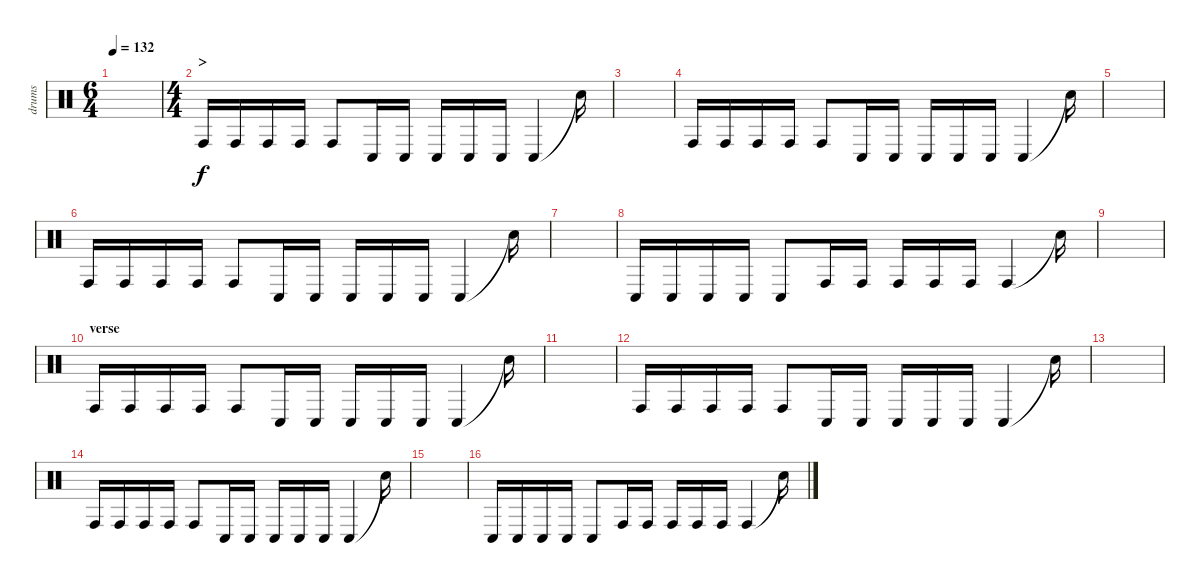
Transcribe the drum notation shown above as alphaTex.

\track ("drums" "drums") {instrument percussion}
\staff {score}
\articulation defaults
\ts (6 4)
\tempo 132
\clef neutral
\ks c
|
\ts (4 4)
\section ("" ">")
"Conga high (hit)".16 "Conga high (hit)".16 "Conga high (hit)".16 "Conga high (hit)".16 "Conga high (hit)".8 "Conga low (hit)".16 "Conga low (hit)".16 "Conga low (hit)".16 "Conga low (hit)".16 "Conga low (hit)".16 "Conga low (hit)".4 "Snare (hit)"{t}.16 |
|
"Conga high (hit)".16 "Conga high (hit)".16 "Conga high (hit)".16 "Conga high (hit)".16 "Conga high (hit)".8 "Conga low (hit)".16 "Conga low (hit)".16 "Conga low (hit)".16 "Conga low (hit)".16 "Conga low (hit)".16 "Conga low (hit)".4 "Snare (hit)"{t}.16 |
|
"Conga high (hit)".16 "Conga high (hit)".16 "Conga high (hit)".16 "Conga high (hit)".16 "Conga high (hit)".8 "Conga low (hit)".16 "Conga low (hit)".16 "Conga low (hit)".16 "Conga low (hit)".16 "Conga low (hit)".16 "Conga low (hit)".4 "Snare (hit)"{t}.16 |
|
"Conga low (hit)".16 "Conga low (hit)".16 "Conga low (hit)".16 "Conga low (hit)".16 "Conga low (hit)".8 "Conga high (hit)".16 "Conga high (hit)".16 "Conga high (hit)".16 "Conga high (hit)".16 "Conga high (hit)".16 "Conga high (hit)".4 "Snare (hit)"{t}.16 |
|
\section ("" "verse")
"Conga high (hit)".16 "Conga high (hit)".16 "Conga high (hit)".16 "Conga high (hit)".16 "Conga high (hit)".8 "Conga low (hit)".16 "Conga low (hit)".16 "Conga low (hit)".16 "Conga low (hit)".16 "Conga low (hit)".16 "Conga low (hit)".4 "Snare (hit)"{t}.16 |
|
"Conga high (hit)".16 "Conga high (hit)".16 "Conga high (hit)".16 "Conga high (hit)".16 "Conga high (hit)".8 "Conga low (hit)".16 "Conga low (hit)".16 "Conga low (hit)".16 "Conga low (hit)".16 "Conga low (hit)".16 "Conga low (hit)".4 "Snare (hit)"{t}.16 |
|
"Conga high (hit)".16 "Conga high (hit)".16 "Conga high (hit)".16 "Conga high (hit)".16 "Conga high (hit)".8 "Conga low (hit)".16 "Conga low (hit)".16 "Conga low (hit)".16 "Conga low (hit)".16 "Conga low (hit)".16 "Conga low (hit)".4 "Snare (hit)"{t}.16 |
|
"Conga low (hit)".16 "Conga low (hit)".16 "Conga low (hit)".16 "Conga low (hit)".16 "Conga low (hit)".8 "Conga high (hit)".16 "Conga high (hit)".16 "Conga high (hit)".16 "Conga high (hit)".16 "Conga high (hit)".16 "Conga high (hit)".4 "Snare (hit)"{t}.16
